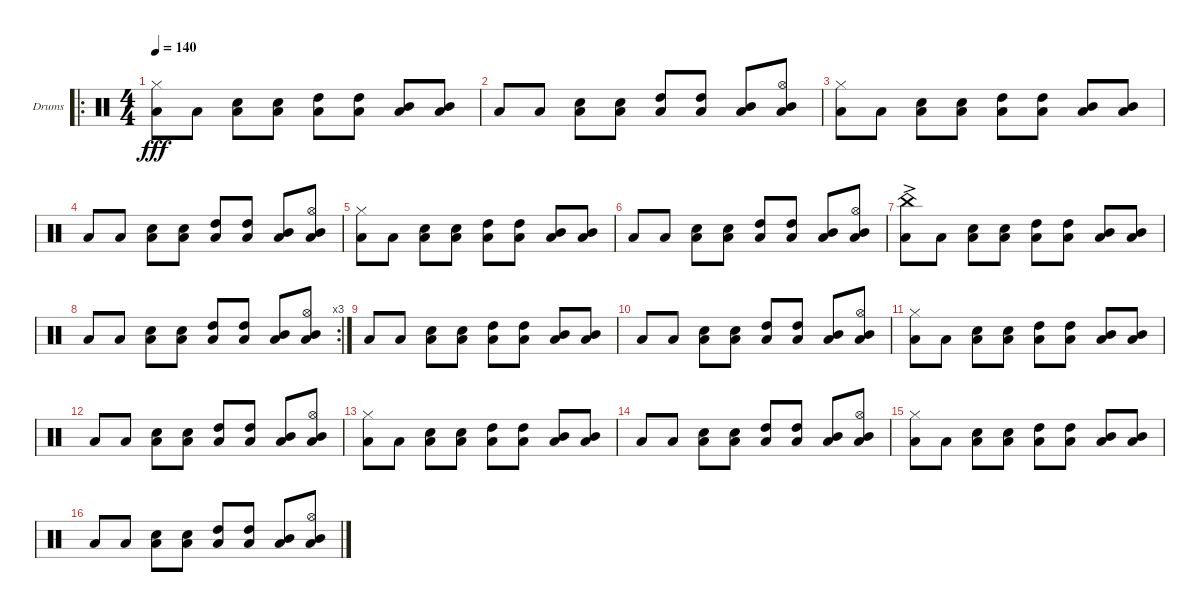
\defaultSystemsLayout 4
\bracketExtendMode groupsimilarinstruments
\firstSystemTrackNameOrientation horizontal
\otherSystemsTrackNameOrientation horizontal
\track ("Drumkit" "Drums") {instrument percussion}
\staff {score}
\articulation defaults
\ro
\ts (4 4)
\tempo 140
\clef neutral
\scale
0.377049
\ks c
("Low Tom (hit)" "Hi-Hat (closed)").8{dy fff} "Low Tom (hit)".8 ("Low Tom (hit)" "Snare (hit) 2").8 ("Low Tom (hit)" "Snare (hit) 2").8 ("Low Tom (hit)" "High Tom (hit)").8 ("Low Tom (hit)" "High Tom (hit)").8 ("Low Tom (hit)" "Mid Tom (hit)").8 ("Low Tom (hit)" "Mid Tom (hit)").8 |
\scale
0.311475 "Low Tom (hit)".8 "Low Tom (hit)".8 ("Low Tom (hit)" "Snare (hit) 2").8 ("Low Tom (hit)" "Snare (hit) 2").8 ("Low Tom (hit)" "High Tom (hit)").8 ("Low Tom (hit)" "High Tom (hit)").8 ("Low Tom (hit)" "Mid Tom (hit)").8{beam invert} ("Low Tom (hit)" "Mid Tom (hit)" "Hi-Hat (open)").8 |
\scale
0.333333 ("Low Tom (hit)" "Hi-Hat (closed)").8 "Low Tom (hit)".8 ("Low Tom (hit)" "Snare (hit) 2").8 ("Low Tom (hit)" "Snare (hit) 2").8 ("Low Tom (hit)" "High Tom (hit)").8 ("Low Tom (hit)" "High Tom (hit)").8 ("Low Tom (hit)" "Mid Tom (hit)").8 ("Low Tom (hit)" "Mid Tom (hit)").8 |
\scale
0.333333 "Low Tom (hit)".8 "Low Tom (hit)".8 ("Low Tom (hit)" "Snare (hit) 2").8 ("Low Tom (hit)" "Snare (hit) 2").8 ("Low Tom (hit)" "High Tom (hit)").8 ("Low Tom (hit)" "High Tom (hit)").8 ("Low Tom (hit)" "Mid Tom (hit)").8{beam invert} ("Low Tom (hit)" "Mid Tom (hit)" "Hi-Hat (open)").8 |
\scale
0.333333 ("Low Tom (hit)" "Hi-Hat (closed)").8 "Low Tom (hit)".8 ("Low Tom (hit)" "Snare (hit) 2").8 ("Low Tom (hit)" "Snare (hit) 2").8 ("Low Tom (hit)" "High Tom (hit)").8 ("Low Tom (hit)" "High Tom (hit)").8 ("Low Tom (hit)" "Mid Tom (hit)").8 ("Low Tom (hit)" "Mid Tom (hit)").8 |
\scale
0.322034 "Low Tom (hit)".8 "Low Tom (hit)".8 ("Low Tom (hit)" "Snare (hit) 2").8 ("Low Tom (hit)" "Snare (hit) 2").8 ("Low Tom (hit)" "High Tom (hit)").8 ("Low Tom (hit)" "High Tom (hit)").8 ("Low Tom (hit)" "Mid Tom (hit)").8{beam invert} ("Low Tom (hit)" "Mid Tom (hit)" "Hi-Hat (open)").8 |
\scale
0.322034 ("Low Tom (hit)" "China (hit)"{ac}).8 "Low Tom (hit)".8 ("Low Tom (hit)" "Snare (hit) 2").8 ("Low Tom (hit)" "Snare (hit) 2").8 ("Low Tom (hit)" "High Tom (hit)").8 ("Low Tom (hit)" "High Tom (hit)").8 ("Low Tom (hit)" "Mid Tom (hit)").8 ("Low Tom (hit)" "Mid Tom (hit)").8 |
\rc 3
\scale
0.355932 "Low Tom (hit)".8 "Low Tom (hit)".8 ("Low Tom (hit)" "Snare (hit) 2").8 ("Low Tom (hit)" "Snare (hit) 2").8 ("Low Tom (hit)" "High Tom (hit)").8 ("Low Tom (hit)" "High Tom (hit)").8 ("Low Tom (hit)" "Mid Tom (hit)").8{beam invert} ("Low Tom (hit)" "Mid Tom (hit)" "Hi-Hat (open)").8 |
\scale
0.333333 "Low Tom (hit)".8 "Low Tom (hit)".8 ("Low Tom (hit)" "Snare (hit) 2").8 ("Low Tom (hit)" "Snare (hit) 2").8 ("Low Tom (hit)" "High Tom (hit)").8 ("Low Tom (hit)" "High Tom (hit)").8 ("Low Tom (hit)" "Mid Tom (hit)").8 ("Low Tom (hit)" "Mid Tom (hit)").8 |
\scale
0.333333 "Low Tom (hit)".8 "Low Tom (hit)".8 ("Low Tom (hit)" "Snare (hit) 2").8 ("Low Tom (hit)" "Snare (hit) 2").8 ("Low Tom (hit)" "High Tom (hit)").8 ("Low Tom (hit)" "High Tom (hit)").8 ("Low Tom (hit)" "Mid Tom (hit)").8{beam invert} ("Low Tom (hit)" "Mid Tom (hit)" "Hi-Hat (open)").8 |
\scale
0.333333 ("Low Tom (hit)" "Hi-Hat (closed)").8 "Low Tom (hit)".8 ("Low Tom (hit)" "Snare (hit) 2").8 ("Low Tom (hit)" "Snare (hit) 2").8 ("Low Tom (hit)" "High Tom (hit)").8 ("Low Tom (hit)" "High Tom (hit)").8 ("Low Tom (hit)" "Mid Tom (hit)").8 ("Low Tom (hit)" "Mid Tom (hit)").8 |
\scale
0.333333 "Low Tom (hit)".8 "Low Tom (hit)".8 ("Low Tom (hit)" "Snare (hit) 2").8 ("Low Tom (hit)" "Snare (hit) 2").8 ("Low Tom (hit)" "High Tom (hit)").8 ("Low Tom (hit)" "High Tom (hit)").8 ("Low Tom (hit)" "Mid Tom (hit)").8{beam invert} ("Low Tom (hit)" "Mid Tom (hit)" "Hi-Hat (open)").8 |
\scale
0.333333 ("Low Tom (hit)" "Hi-Hat (closed)").8 "Low Tom (hit)".8 ("Low Tom (hit)" "Snare (hit) 2").8 ("Low Tom (hit)" "Snare (hit) 2").8 ("Low Tom (hit)" "High Tom (hit)").8 ("Low Tom (hit)" "High Tom (hit)").8 ("Low Tom (hit)" "Mid Tom (hit)").8 ("Low Tom (hit)" "Mid Tom (hit)").8 |
\scale
0.333333 "Low Tom (hit)".8 "Low Tom (hit)".8 ("Low Tom (hit)" "Snare (hit) 2").8 ("Low Tom (hit)" "Snare (hit) 2").8 ("Low Tom (hit)" "High Tom (hit)").8 ("Low Tom (hit)" "High Tom (hit)").8 ("Low Tom (hit)" "Mid Tom (hit)").8{beam invert} ("Low Tom (hit)" "Mid Tom (hit)" "Hi-Hat (open)").8 |
("Low Tom (hit)" "Hi-Hat (closed)").8 "Low Tom (hit)".8 ("Low Tom (hit)" "Snare (hit) 2").8 ("Low Tom (hit)" "Snare (hit) 2").8 ("Low Tom (hit)" "High Tom (hit)").8 ("Low Tom (hit)" "High Tom (hit)").8 ("Low Tom (hit)" "Mid Tom (hit)").8 ("Low Tom (hit)" "Mid Tom (hit)").8 |
"Low Tom (hit)".8 "Low Tom (hit)".8 ("Low Tom (hit)" "Snare (hit) 2").8 ("Low Tom (hit)" "Snare (hit) 2").8 ("Low Tom (hit)" "High Tom (hit)").8 ("Low Tom (hit)" "High Tom (hit)").8 ("Low Tom (hit)" "Mid Tom (hit)").8{beam invert} ("Low Tom (hit)" "Mid Tom (hit)" "Hi-Hat (open)").8
